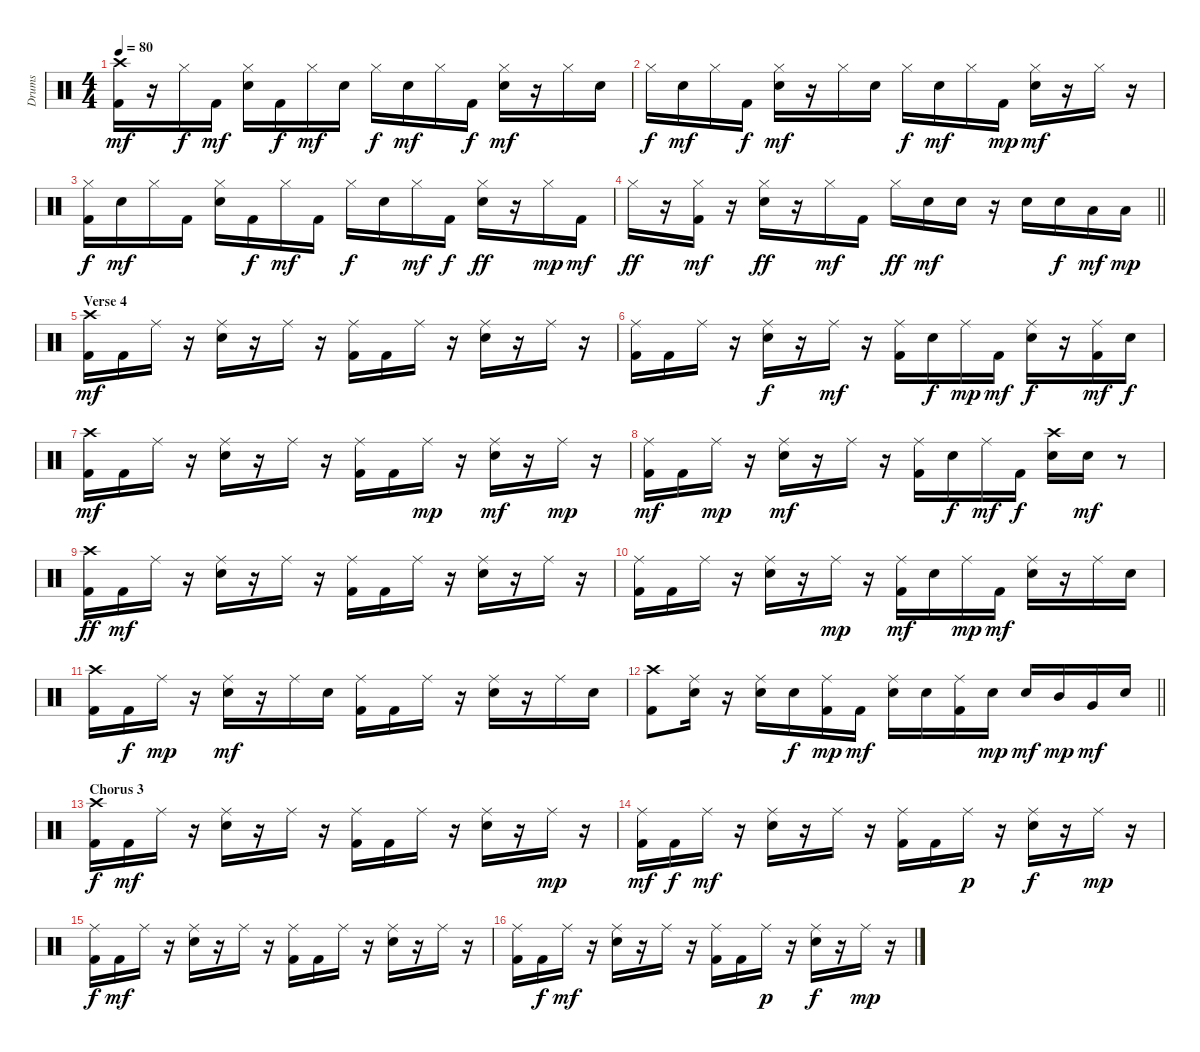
\track ("Drums" "Drums") {instrument percussion}
\staff {score}
\articulation defaults
\ts (4 4)
\tempo 80
\clef neutral
\ks c
("Kick (hit) 2" "Crash high (hit)").16{dy mf} r.16 "Hi-Hat (closed)".16{dy f} "Kick (hit) 2".16{dy mf} ("Snare (hit) 2" "Hi-Hat (closed)").16 "Kick (hit) 2".16{dy f} "Hi-Hat (closed)".16{dy mf} "Snare (hit) 2".16 "Hi-Hat (closed)".16{dy f} "Snare (hit) 2".16{dy mf} "Hi-Hat (closed)".16 "Kick (hit) 2".16{dy f} ("Snare (hit) 2" "Hi-Hat (closed)").16{dy mf} r.16 "Hi-Hat (closed)".16 "Snare (hit) 2".16 |
"Hi-Hat (closed)".16{dy f} "Snare (hit) 2".16{dy mf} "Hi-Hat (closed)".16 "Kick (hit) 2".16{dy f} ("Snare (hit) 2" "Hi-Hat (closed)").16{dy mf} r.16 "Hi-Hat (closed)".16 "Snare (hit) 2".16 "Hi-Hat (closed)".16{dy f} "Snare (hit) 2".16{dy mf} "Hi-Hat (closed)".16 "Kick (hit) 2".16{dy mp} ("Snare (hit) 2" "Hi-Hat (closed)").16{dy mf} r.16 "Hi-Hat (closed)".16 r.16 |
("Kick (hit) 2" "Hi-Hat (closed)").16{dy f} "Snare (hit) 2".16{dy mf} "Hi-Hat (closed)".16 "Kick (hit) 2".16 ("Snare (hit) 2" "Hi-Hat (closed)").16 "Kick (hit) 2".16{dy f} "Hi-Hat (closed)".16{dy mf} "Kick (hit) 2".16 "Hi-Hat (closed)".16{dy f} "Snare (hit) 2".16 "Hi-Hat (closed)".16{dy mf} "Kick (hit) 2".16{dy f} ("Snare (hit) 2" "Hi-Hat (closed)").16{dy ff} r.16 "Hi-Hat (closed)".16{dy mp} "Kick (hit) 2".16{dy mf} |
\barLineRight lightlight "Hi-Hat (closed)".16{dy ff}
r.16 ("Kick (hit) 2" "Hi-Hat (closed)").16{dy mf} r.16 ("Snare (hit) 2" "Hi-Hat (closed)").16{dy ff} r.16 "Hi-Hat (closed)".16{dy mf} "Kick (hit) 2".16 "Hi-Hat (closed)".16{dy ff} "Snare (hit) 2".16{dy mf} "Snare (hit) 2".16 r.16 "Snare (hit) 2".16 "Snare (hit) 2".16{dy f} "Low Tom (hit)".16{dy mf} "Low Tom (hit)".16{dy mp} |
\section ("" "Verse 4")
("Kick (hit) 2" "Crash high (hit)").16{dy mf} "Kick (hit) 2".16 "Ride (middle)".16 r.16 ("Snare (hit) 2" "Ride (middle)").16 r.16 "Ride (middle)".16 r.16 ("Kick (hit) 2" "Ride (middle)").16 "Kick (hit) 2".16 "Ride (middle)".16 r.16 ("Snare (hit) 2" "Ride (middle)").16 r.16 "Ride (middle)".16 r.16 |
("Kick (hit) 2" "Ride (middle)").16 "Kick (hit) 2".16 "Ride (middle)".16 r.16 ("Snare (hit) 2" "Ride (middle)").16{dy f} r.16 "Ride (middle)".16{dy mf} r.16 ("Kick (hit) 2" "Ride (middle)").16 "Snare (hit) 2".16{dy f} "Ride (middle)".16{dy mp} "Kick (hit) 2".16{dy mf} ("Snare (hit) 2" "Ride (middle)").16{dy f} r.16 ("Kick (hit) 2" "Ride (middle)").16{dy mf} "Snare (hit) 2".16{dy f} |
("Kick (hit) 2" "Crash high (hit)").16{dy mf} "Kick (hit) 2".16 "Ride (middle)".16 r.16 ("Snare (hit) 2" "Ride (middle)").16 r.16 "Ride (middle)".16 r.16 ("Kick (hit) 2" "Ride (middle)").16 "Kick (hit) 2".16 "Ride (middle)".16{dy mp} r.16 ("Snare (hit) 2" "Ride (middle)").16{dy mf} r.16 "Ride (middle)".16{dy mp} r.16 |
("Kick (hit) 2" "Ride (middle)").16{dy mf} "Kick (hit) 2".16 "Ride (middle)".16{dy mp} r.16 ("Snare (hit) 2" "Ride (middle)").16{dy mf} r.16 "Ride (middle)".16 r.16 ("Kick (hit) 2" "Ride (middle)").16 "Snare (hit) 2".16{dy f} "Ride (middle)".16{dy mf} "Kick (hit) 2".16{dy f} ("Snare (hit) 2" "Crash high (hit)").16 "Snare (hit) 2".16{dy mf} r.8 |
("Kick (hit) 2" "Crash high (hit)").16{dy ff} "Kick (hit) 2".16{dy mf} "Ride (middle)".16 r.16 ("Snare (hit) 2" "Ride (middle)").16 r.16 "Ride (middle)".16 r.16 ("Kick (hit) 2" "Ride (middle)").16 "Kick (hit) 2".16 "Ride (middle)".16 r.16 ("Snare (hit) 2" "Ride (middle)").16 r.16 "Ride (middle)".16 r.16 |
("Kick (hit) 2" "Ride (middle)").16 "Kick (hit) 2".16 "Ride (middle)".16 r.16 ("Snare (hit) 2" "Ride (middle)").16 r.16 "Ride (middle)".16{dy mp} r.16 ("Kick (hit) 2" "Ride (middle)").16{dy mf} "Snare (hit) 2".16 "Ride (middle)".16{dy mp} "Kick (hit) 2".16{dy mf} ("Snare (hit) 2" "Ride (middle)").16 r.16 "Ride (middle)".16 "Snare (hit) 2".16 |
("Kick (hit) 2" "Crash high (hit)").16 "Kick (hit) 2".16{dy f} "Ride (middle)".16{dy mp} r.16 ("Snare (hit) 2" "Ride (middle)").16{dy mf} r.16 "Ride (middle)".16 "Snare (hit) 2".16 ("Kick (hit) 2" "Ride (middle)").16 "Kick (hit) 2".16 "Ride (middle)".16 r.16 ("Snare (hit) 2" "Ride (middle)").16 r.16 "Ride (middle)".16 "Snare (hit) 2".16 |
\barLineRight lightlight
("Kick (hit) 2" "Crash high (hit)").8 ("Snare (hit) 2" "Ride (middle)").16 r.16 ("Snare (hit) 2" "Ride (middle)").16 "Snare (hit) 2".16{dy f} ("Kick (hit) 2" "Ride (middle)").16{dy mp} "Kick (hit) 2".16{dy mf} ("Snare (hit) 2" "Ride (middle)").16 "Snare (hit) 2".16 ("Kick (hit) 2" "Ride (middle)").16 "Snare (hit) 2".16{dy mp} "Snare (hit) 2".16{dy mf} "Mid Tom (hit)".16{dy mp} "Very Low Tom (hit)".16{dy mf} "Snare (hit) 2".16 |
\section ("" "Chorus 3")
("Kick (hit) 2" "Crash high (hit)").16{dy f} "Kick (hit) 2".16{dy mf} "Ride (middle)".16 r.16 ("Snare (hit) 2" "Ride (middle)").16 r.16 "Ride (middle)".16 r.16 ("Kick (hit) 2" "Ride (middle)").16 "Kick (hit) 2".16 "Ride (middle)".16 r.16 ("Snare (hit) 2" "Ride (middle)").16 r.16 "Ride (middle)".16{dy mp} r.16 |
("Kick (hit) 2" "Ride (middle)").16{dy mf} "Kick (hit) 2".16{dy f} "Ride (middle)".16{dy mf} r.16 ("Snare (hit) 2" "Ride (middle)").16 r.16 "Ride (middle)".16 r.16 ("Kick (hit) 2" "Ride (middle)").16 "Kick (hit) 2".16 "Ride (middle)".16{dy p} r.16 ("Snare (hit) 2" "Ride (middle)").16{dy f} r.16 "Ride (middle)".16{dy mp} r.16 |
("Kick (hit) 2" "Ride (middle)").16{dy f} "Kick (hit) 2".16{dy mf} "Ride (middle)".16 r.16 ("Snare (hit) 2" "Ride (middle)").16 r.16 "Ride (middle)".16 r.16 ("Kick (hit) 2" "Ride (middle)").16 "Kick (hit) 2".16 "Ride (middle)".16 r.16 ("Snare (hit) 2" "Ride (middle)").16 r.16 "Ride (middle)".16 r.16 |
("Kick (hit) 2" "Ride (middle)").16 "Kick (hit) 2".16{dy f} "Ride (middle)".16{dy mf} r.16 ("Snare (hit) 2" "Ride (middle)").16 r.16 "Ride (middle)".16 r.16 ("Kick (hit) 2" "Ride (middle)").16 "Kick (hit) 2".16 "Ride (middle)".16{dy p} r.16 ("Snare (hit) 2" "Ride (middle)").16{dy f} r.16 "Ride (middle)".16{dy mp} r.16
